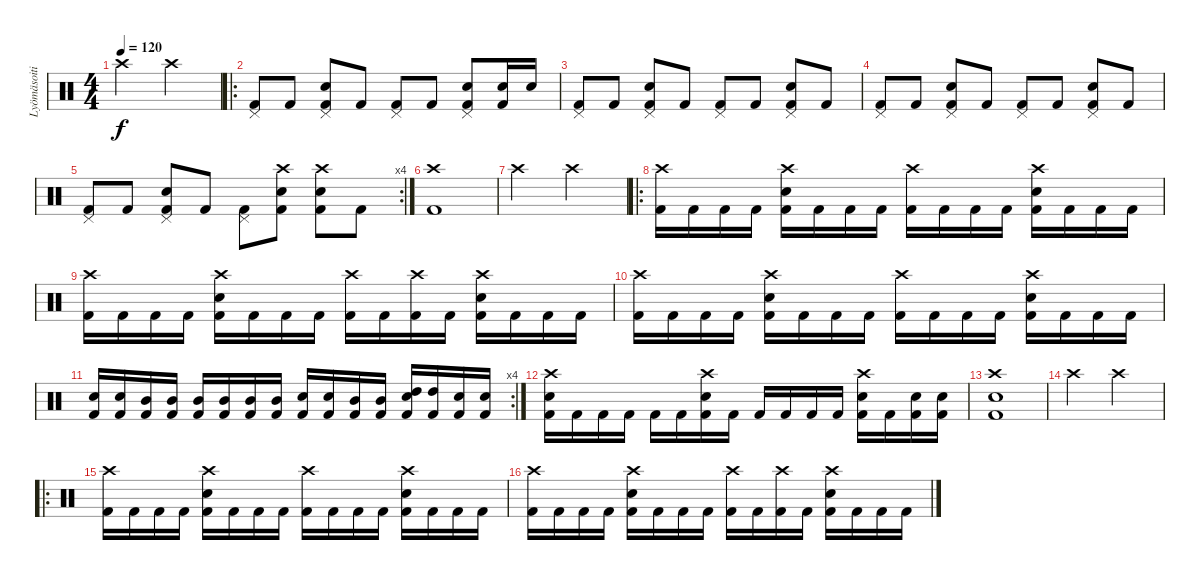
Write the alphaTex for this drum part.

\track ("Lyömäsoitin" "Lyömäsoiti") {instrument percussion}
\staff {score}
\articulation defaults
\ts (4 4)
\tempo 120
\clef neutral
\ks c "Crash high (hit)".2{dy f} "Crash high (hit)".2
|
\ro
("Kick (hit) 2" "Pedal Hi-Hat (hit)").8 "Kick (hit) 2".8 ("Kick (hit) 2" "Pedal Hi-Hat (hit)" "Electric Snare (hit)").8 "Kick (hit) 2".8 ("Kick (hit) 2" "Pedal Hi-Hat (hit)").8 "Kick (hit) 2".8 ("Kick (hit) 2" "Pedal Hi-Hat (hit)" "Electric Snare (hit)").8 ("Kick (hit) 2" "Electric Snare (hit)").16 "Electric Snare (hit)".16 |
("Kick (hit) 2" "Pedal Hi-Hat (hit)").8 "Kick (hit) 2".8 ("Kick (hit) 2" "Pedal Hi-Hat (hit)" "Electric Snare (hit)").8 "Kick (hit) 2".8 ("Kick (hit) 2" "Pedal Hi-Hat (hit)").8 "Kick (hit) 2".8 ("Kick (hit) 2" "Pedal Hi-Hat (hit)" "Electric Snare (hit)").8 "Kick (hit) 2".8 |
("Kick (hit) 2" "Pedal Hi-Hat (hit)").8 "Kick (hit) 2".8 ("Kick (hit) 2" "Pedal Hi-Hat (hit)" "Electric Snare (hit)").8 "Kick (hit) 2".8 ("Kick (hit) 2" "Pedal Hi-Hat (hit)").8 "Kick (hit) 2".8 ("Kick (hit) 2" "Pedal Hi-Hat (hit)" "Electric Snare (hit)").8 "Kick (hit) 2".8 |
\rc 4
("Kick (hit) 2" "Pedal Hi-Hat (hit)").8 "Kick (hit) 2".8 ("Kick (hit) 2" "Pedal Hi-Hat (hit)" "Electric Snare (hit)").8 "Kick (hit) 2".8 ("Kick (hit) 2" "Pedal Hi-Hat (hit)").8 ("Kick (hit) 2" "Crash high (hit)" "Electric Snare (hit)").8 ("Kick (hit) 2" "Crash high (hit)" "Electric Snare (hit)").8 "Kick (hit) 2".8 |
("Kick (hit) 2" "Crash high (hit)").1 |
"Crash high (hit)".2 "Crash high (hit)".2 |
\ro
("Kick (hit) 2" "Crash high (hit)").16 "Kick (hit) 2".16 "Kick (hit) 2".16 "Kick (hit) 2".16 ("Kick (hit) 2" "Crash high (hit)" "Electric Snare (hit)").16 "Kick (hit) 2".16 "Kick (hit) 2".16 "Kick (hit) 2".16 ("Kick (hit) 2" "Crash high (hit)").16 "Kick (hit) 2".16 "Kick (hit) 2".16 "Kick (hit) 2".16 ("Kick (hit) 2" "Crash high (hit)" "Electric Snare (hit)").16 "Kick (hit) 2".16 "Kick (hit) 2".16 "Kick (hit) 2".16 |
("Kick (hit) 2" "Crash high (hit)").16 "Kick (hit) 2".16 "Kick (hit) 2".16 "Kick (hit) 2".16 ("Kick (hit) 2" "Crash high (hit)" "Electric Snare (hit)").16 "Kick (hit) 2".16 "Kick (hit) 2".16 "Kick (hit) 2".16 ("Kick (hit) 2" "Crash high (hit)").16 "Kick (hit) 2".16 ("Kick (hit) 2" "Crash high (hit)").16 "Kick (hit) 2".16 ("Kick (hit) 2" "Crash high (hit)" "Electric Snare (hit)").16 "Kick (hit) 2".16 "Kick (hit) 2".16 "Kick (hit) 2".16 |
("Kick (hit) 2" "Crash high (hit)").16 "Kick (hit) 2".16 "Kick (hit) 2".16 "Kick (hit) 2".16 ("Kick (hit) 2" "Crash high (hit)" "Electric Snare (hit)").16 "Kick (hit) 2".16 "Kick (hit) 2".16 "Kick (hit) 2".16 ("Kick (hit) 2" "Crash high (hit)").16 "Kick (hit) 2".16 "Kick (hit) 2".16 "Kick (hit) 2".16 ("Kick (hit) 2" "Crash high (hit)" "Electric Snare (hit)").16 "Kick (hit) 2".16 "Kick (hit) 2".16 "Kick (hit) 2".16 |
\rc 4
("Kick (hit) 2" "Electric Snare (hit)").16 ("Kick (hit) 2" "Electric Snare (hit)").16 ("Kick (hit) 2" "Mid Tom (hit)").16 ("Kick (hit) 2" "Mid Tom (hit)").16 ("Kick (hit) 2" "Mid Tom (hit)").16 ("Kick (hit) 2" "Mid Tom (hit)").16 ("Kick (hit) 2" "Mid Tom (hit)").16 ("Kick (hit) 2" "Mid Tom (hit)").16 ("Kick (hit) 2" "Electric Snare (hit)").16 ("Kick (hit) 2" "Electric Snare (hit)").16 ("Kick (hit) 2" "Mid Tom (hit)").16 ("Kick (hit) 2" "Mid Tom (hit)").16 ("Kick (hit) 2" "High Tom (hit)" "Electric Snare (hit)").16 ("Kick (hit) 2" "High Tom (hit)").16 ("Kick (hit) 2" "Electric Snare (hit)").16 ("Kick (hit) 2" "Electric Snare (hit)").16 |
("Kick (hit) 2" "Electric Snare (hit)" "Crash high (hit)").16 "Kick (hit) 2".16 "Kick (hit) 2".16 "Kick (hit) 2".16 "Kick (hit) 2".16 "Kick (hit) 2".16 ("Kick (hit) 2" "Electric Snare (hit)" "Crash high (hit)").16 "Kick (hit) 2".16 "Kick (hit) 2".16 "Kick (hit) 2".16 "Kick (hit) 2".16 "Kick (hit) 2".16 ("Kick (hit) 2" "Electric Snare (hit)" "Crash high (hit)").16 "Kick (hit) 2".16 ("Kick (hit) 2" "Electric Snare (hit)").16 ("Kick (hit) 2" "Electric Snare (hit)").16 |
("Kick (hit) 2" "Electric Snare (hit)" "Crash high (hit)").1 |
"Crash high (hit)".2 "Crash high (hit)".2 |
\ro
("Kick (hit) 2" "Crash high (hit)").16 "Kick (hit) 2".16 "Kick (hit) 2".16 "Kick (hit) 2".16 ("Kick (hit) 2" "Crash high (hit)" "Electric Snare (hit)").16 "Kick (hit) 2".16 "Kick (hit) 2".16 "Kick (hit) 2".16 ("Kick (hit) 2" "Crash high (hit)").16 "Kick (hit) 2".16 "Kick (hit) 2".16 "Kick (hit) 2".16 ("Kick (hit) 2" "Crash high (hit)" "Electric Snare (hit)").16 "Kick (hit) 2".16 "Kick (hit) 2".16 "Kick (hit) 2".16 |
("Kick (hit) 2" "Crash high (hit)").16 "Kick (hit) 2".16 "Kick (hit) 2".16 "Kick (hit) 2".16 ("Kick (hit) 2" "Crash high (hit)" "Electric Snare (hit)").16 "Kick (hit) 2".16 "Kick (hit) 2".16 "Kick (hit) 2".16 ("Kick (hit) 2" "Crash high (hit)").16 "Kick (hit) 2".16 ("Kick (hit) 2" "Crash high (hit)").16 "Kick (hit) 2".16 ("Kick (hit) 2" "Crash high (hit)" "Electric Snare (hit)").16 "Kick (hit) 2".16 "Kick (hit) 2".16 "Kick (hit) 2".16
